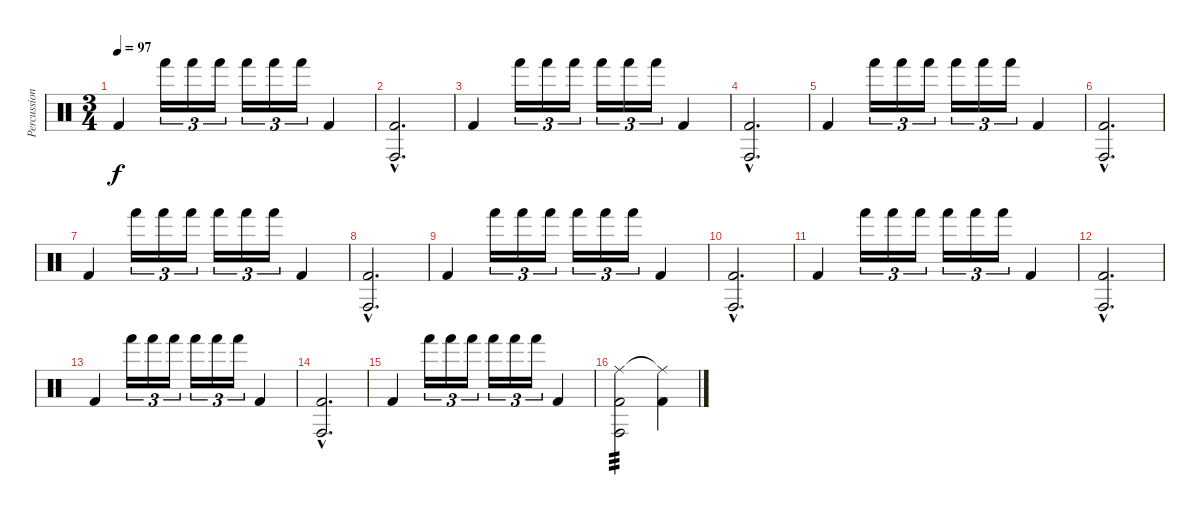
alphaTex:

\track ("Percussion" "Percussion") {instrument percussion}
\staff {score}
\articulation defaults
\ts (3 4)
\tempo 97
\clef neutral
\ks c "Kick (hit) 2".4{dy f} "Hand (hit)".16{tu (3 2)} "Hand (hit)".16{tu (3 2)} "Hand (hit)".16{tu (3 2)} "Hand (hit)".16{tu (3 2)} "Hand (hit)".16{tu (3 2)} "Hand (hit)".16{tu (3 2)} "Kick (hit) 2".4
|
("Conga high (hit)"{hac} "Kick (hit) 2"{hac}).2{d} |
"Kick (hit) 2".4 "Hand (hit)".16{tu (3 2)} "Hand (hit)".16{tu (3 2)} "Hand (hit)".16{tu (3 2)} "Hand (hit)".16{tu (3 2)} "Hand (hit)".16{tu (3 2)} "Hand (hit)".16{tu (3 2)} "Kick (hit) 2".4 |
("Conga high (hit)"{hac} "Kick (hit) 2"{hac}).2{d} |
"Kick (hit) 2".4 "Hand (hit)".16{tu (3 2)} "Hand (hit)".16{tu (3 2)} "Hand (hit)".16{tu (3 2)} "Hand (hit)".16{tu (3 2)} "Hand (hit)".16{tu (3 2)} "Hand (hit)".16{tu (3 2)} "Kick (hit) 2".4 |
("Conga high (hit)"{hac} "Kick (hit) 2"{hac}).2{d} |
"Kick (hit) 2".4 "Hand (hit)".16{tu (3 2)} "Hand (hit)".16{tu (3 2)} "Hand (hit)".16{tu (3 2)} "Hand (hit)".16{tu (3 2)} "Hand (hit)".16{tu (3 2)} "Hand (hit)".16{tu (3 2)} "Kick (hit) 2".4 |
("Conga high (hit)"{hac} "Kick (hit) 2"{hac}).2{d} |
"Kick (hit) 2".4 "Hand (hit)".16{tu (3 2)} "Hand (hit)".16{tu (3 2)} "Hand (hit)".16{tu (3 2)} "Hand (hit)".16{tu (3 2)} "Hand (hit)".16{tu (3 2)} "Hand (hit)".16{tu (3 2)} "Kick (hit) 2".4 |
("Conga high (hit)"{hac} "Kick (hit) 2"{hac}).2{d} |
"Kick (hit) 2".4 "Hand (hit)".16{tu (3 2)} "Hand (hit)".16{tu (3 2)} "Hand (hit)".16{tu (3 2)} "Hand (hit)".16{tu (3 2)} "Hand (hit)".16{tu (3 2)} "Hand (hit)".16{tu (3 2)} "Kick (hit) 2".4 |
("Conga high (hit)"{hac} "Kick (hit) 2"{hac}).2{d} |
"Kick (hit) 2".4 "Hand (hit)".16{tu (3 2)} "Hand (hit)".16{tu (3 2)} "Hand (hit)".16{tu (3 2)} "Hand (hit)".16{tu (3 2)} "Hand (hit)".16{tu (3 2)} "Hand (hit)".16{tu (3 2)} "Kick (hit) 2".4 |
("Conga high (hit)"{hac} "Kick (hit) 2"{hac}).2{d} |
"Kick (hit) 2".4 "Hand (hit)".16{tu (3 2)} "Hand (hit)".16{tu (3 2)} "Hand (hit)".16{tu (3 2)} "Hand (hit)".16{tu (3 2)} "Hand (hit)".16{tu (3 2)} "Hand (hit)".16{tu (3 2)} "Kick (hit) 2".4 |
("Ride (middle)" "Conga high (hit)" "Kick (hit) 2").2{tp 3} ("Ride (middle)"{t} "Kick (hit) 2").4
